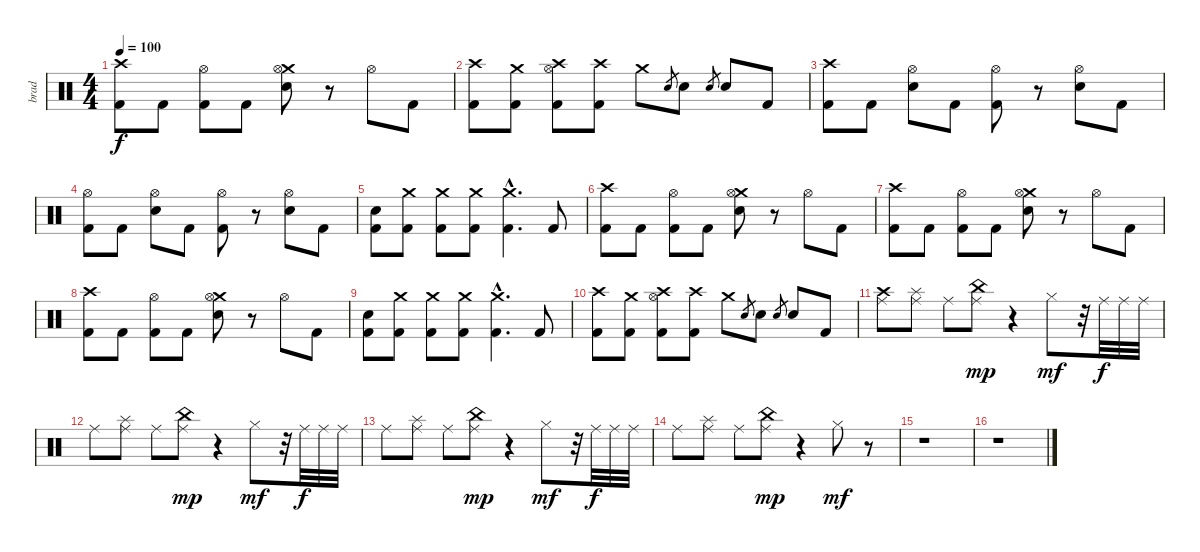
\track ("brad" "brad") {instrument percussion}
\staff {score}
\articulation defaults
\ts (4 4)
\tempo 100
\clef neutral
\ks c
("Crash high (hit)" "Kick (hit) 2").8{dy f} "Kick (hit) 2".8 ("Hi-Hat (open)" "Kick (hit) 2").8 "Kick (hit) 2".8 ("Crash medium (hit)" "Hi-Hat (open)" "Electric Snare (hit)").8 r.8 "Hi-Hat (open)".8 "Kick (hit) 2".8 |
("Crash high (hit)" "Kick (hit) 2").8 ("Crash medium (hit)" "Kick (hit) 2").8 ("Crash high (hit)" "Hi-Hat (open)" "Kick (hit) 2").8 ("Crash high (hit)" "Kick (hit) 2").8 "Crash medium (hit)".8 "Electric Snare (hit)".8{gr} "Electric Snare (hit)".8 "Electric Snare (hit)".8{gr} "Electric Snare (hit)".8 "Kick (hit) 2".8 |
("Crash high (hit)" "Kick (hit) 2").8 "Kick (hit) 2".8 ("Hi-Hat (open)" "Electric Snare (hit)").8 "Kick (hit) 2".8 ("Hi-Hat (open)" "Kick (hit) 2").8 r.8 ("Hi-Hat (open)" "Electric Snare (hit)").8 "Kick (hit) 2".8 |
("Hi-Hat (open)" "Kick (hit) 2").8 "Kick (hit) 2".8 ("Hi-Hat (open)" "Electric Snare (hit)").8 "Kick (hit) 2".8 ("Hi-Hat (open)" "Kick (hit) 2").8 r.8 ("Hi-Hat (open)" "Electric Snare (hit)").8 "Kick (hit) 2".8 |
("Electric Snare (hit)" "Kick (hit) 2").8 ("Crash medium (hit)" "Kick (hit) 2").8 ("Crash medium (hit)" "Kick (hit) 2").8 ("Crash medium (hit)" "Kick (hit) 2").8 ("Crash medium (hit)"{hac} "Kick (hit) 2"{hac}).4{d} "Kick (hit) 2".8 |
("Crash high (hit)" "Kick (hit) 2").8 "Kick (hit) 2".8 ("Hi-Hat (open)" "Kick (hit) 2").8 "Kick (hit) 2".8 ("Crash medium (hit)" "Hi-Hat (open)" "Electric Snare (hit)").8 r.8 "Hi-Hat (open)".8 "Kick (hit) 2".8 |
("Crash high (hit)" "Kick (hit) 2").8 "Kick (hit) 2".8 ("Hi-Hat (open)" "Kick (hit) 2").8 "Kick (hit) 2".8 ("Crash medium (hit)" "Hi-Hat (open)" "Electric Snare (hit)").8 r.8 "Hi-Hat (open)".8 "Kick (hit) 2".8 |
("Crash high (hit)" "Kick (hit) 2").8 "Kick (hit) 2".8 ("Hi-Hat (open)" "Kick (hit) 2").8 "Kick (hit) 2".8 ("Crash medium (hit)" "Hi-Hat (open)" "Electric Snare (hit)").8 r.8 "Hi-Hat (open)".8 "Kick (hit) 2".8 |
("Electric Snare (hit)" "Kick (hit) 2").8 ("Crash medium (hit)" "Kick (hit) 2").8 ("Crash medium (hit)" "Kick (hit) 2").8 ("Crash medium (hit)" "Kick (hit) 2").8 ("Crash medium (hit)"{hac} "Kick (hit) 2"{hac}).4{d} "Kick (hit) 2".8 |
("Crash high (hit)" "Kick (hit) 2").8 ("Crash medium (hit)" "Kick (hit) 2").8 ("Crash high (hit)" "Hi-Hat (open)" "Kick (hit) 2").8 ("Crash high (hit)" "Kick (hit) 2").8 "Crash medium (hit)".8 "Electric Snare (hit)".8{gr} "Electric Snare (hit)".8 "Electric Snare (hit)".8{gr} "Electric Snare (hit)".8 "Kick (hit) 2".8 |
("Crash high (hit)" "Ride (middle)").8 ("Splash (hit)" "Ride (middle)").8 "Ride (middle)".8 ("China (hit)" "Ride (middle)").8{dy mp} r.4 "Hi-Hat (closed)".8{dy mf} r.32 "Ride (middle)".32{dy f} "Ride (middle)".32 "Ride (middle)".32 |
"Ride (middle)".8 ("Splash (hit)" "Ride (middle)").8 "Ride (middle)".8 ("China (hit)" "Ride (middle)").8{dy mp} r.4 "Hi-Hat (closed)".8{dy mf} r.32 "Ride (middle)".32{dy f} "Ride (middle)".32 "Ride (middle)".32 |
"Ride (middle)".8 ("Splash (hit)" "Ride (middle)").8 "Ride (middle)".8 ("China (hit)" "Ride (middle)").8{dy mp} r.4 "Hi-Hat (closed)".8{dy mf} r.32 "Ride (middle)".32{dy f} "Ride (middle)".32 "Ride (middle)".32 |
"Ride (middle)".8 ("Splash (hit)" "Ride (middle)").8 "Ride (middle)".8 ("China (hit)" "Ride (middle)").8{dy mp} r.4 "Hi-Hat (closed)".8{dy mf} r.8 |
r.1 |
r.1
